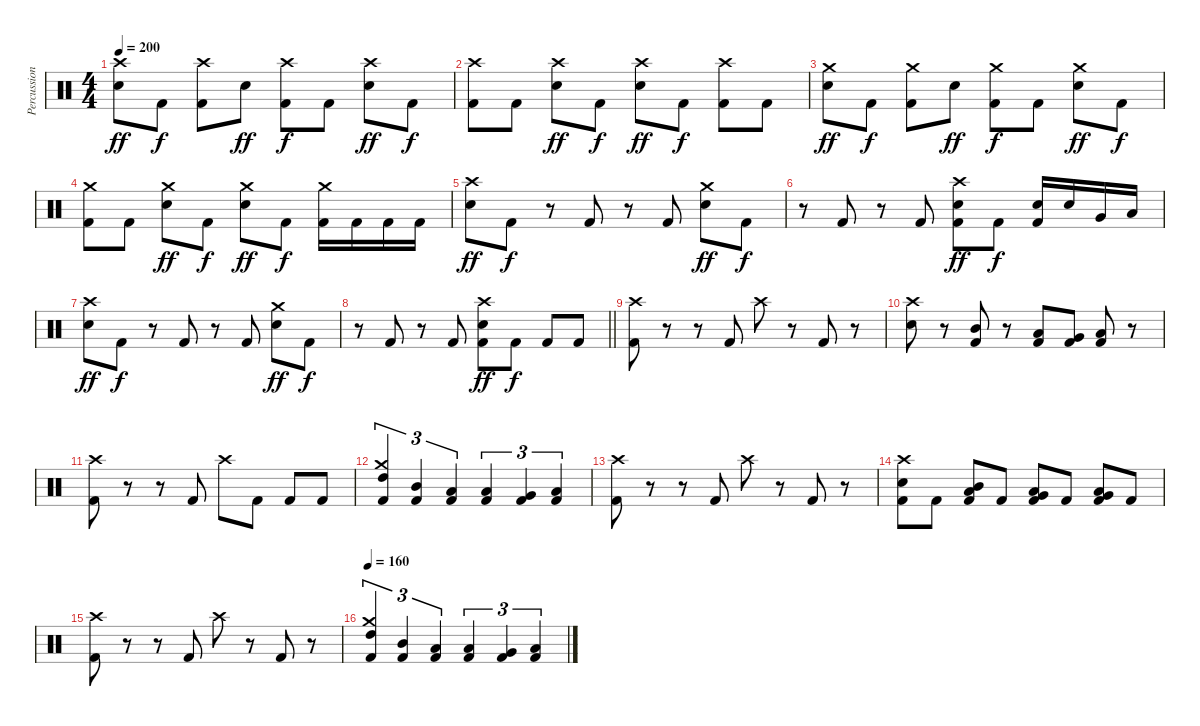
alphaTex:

\track ("Percussion" "Percussion") {instrument percussion}
\staff {score}
\articulation defaults
\ts (4 4)
\tempo 200
\clef neutral
\ks c
("Crash high (hit)" "Electric Snare (hit)").8{dy ff} "Kick (hit) 2".8{dy f} ("Crash high (hit)" "Kick (hit) 2").8 "Electric Snare (hit)".8{dy ff} ("Crash high (hit)" "Kick (hit) 2").8{dy f} "Kick (hit) 2".8 ("Crash high (hit)" "Electric Snare (hit)").8{dy ff} "Kick (hit) 2".8{dy f} |
("Crash high (hit)" "Kick (hit) 2").8 "Kick (hit) 2".8 ("Crash high (hit)" "Electric Snare (hit)").8{dy ff} "Kick (hit) 2".8{dy f} ("Crash high (hit)" "Electric Snare (hit)").8{dy ff} "Kick (hit) 2".8{dy f} ("Crash high (hit)" "Kick (hit) 2").8 "Kick (hit) 2".8 |
("Crash medium (hit)" "Electric Snare (hit)").8{dy ff} "Kick (hit) 2".8{dy f} ("Crash medium (hit)" "Kick (hit) 2").8 "Electric Snare (hit)".8{dy ff} ("Crash medium (hit)" "Kick (hit) 2").8{dy f} "Kick (hit) 2".8 ("Crash medium (hit)" "Electric Snare (hit)").8{dy ff} "Kick (hit) 2".8{dy f} |
("Crash medium (hit)" "Kick (hit) 2").8 "Kick (hit) 2".8 ("Crash medium (hit)" "Electric Snare (hit)").8{dy ff} "Kick (hit) 2".8{dy f} ("Crash medium (hit)" "Electric Snare (hit)").8{dy ff} "Kick (hit) 2".8{dy f} ("Crash medium (hit)" "Kick (hit) 2").16 "Kick (hit) 2".16 "Kick (hit) 2".16 "Kick (hit) 2".16 |
("Crash high (hit)" "Electric Snare (hit)").8{dy ff} "Kick (hit) 2".8{dy f} r.8 "Kick (hit) 2".8 r.8 "Kick (hit) 2".8 ("Crash medium (hit)" "Electric Snare (hit)").8{dy ff} "Kick (hit) 2".8{dy f} |
r.8 "Kick (hit) 2".8 r.8 "Kick (hit) 2".8 ("Crash high (hit)" "Electric Snare (hit)" "Kick (hit) 2").8{dy ff} "Kick (hit) 2".8{dy f} ("Electric Snare (hit)" "Kick (hit) 2").16 "Electric Snare (hit)".16 "Very Low Tom (hit)".16 "Low Tom (hit)".16 |
("Crash high (hit)" "Electric Snare (hit)").8{dy ff} "Kick (hit) 2".8{dy f} r.8 "Kick (hit) 2".8 r.8 "Kick (hit) 2".8 ("Crash medium (hit)" "Electric Snare (hit)").8{dy ff} "Kick (hit) 2".8{dy f} |
\barLineRight lightlight
r.8 "Kick (hit) 2".8 r.8 "Kick (hit) 2".8 ("Crash high (hit)" "Electric Snare (hit)" "Kick (hit) 2").8{dy ff} "Kick (hit) 2".8{dy f} "Kick (hit) 2".8 "Kick (hit) 2".8 |
\section ("" "")
("Crash high (hit)" "Kick (hit) 2").8 r.8 r.8 "Kick (hit) 2".8 "Crash high (hit)".8 r.8 "Kick (hit) 2".8 r.8 |
("Crash high (hit)" "Electric Snare (hit)").8 r.8 ("Mid Tom (hit)" "Kick (hit) 2").8 r.8 ("Low Tom (hit)" "Kick (hit) 2").8 ("Very Low Tom (hit)" "Kick (hit) 2").8 ("Low Floor Tom (hit)" "Kick (hit) 2").8 r.8 |
("Crash high (hit)" "Kick (hit) 2").8 r.8 r.8 "Kick (hit) 2".8 "Crash high (hit)".8 "Kick (hit) 2".8 "Kick (hit) 2".8 "Kick (hit) 2".8 |
("Crash medium (hit)" "High Tom (hit)" "Kick (hit) 2").4{tu (3 2)} ("Mid Tom (hit)" "Kick (hit) 2").4{tu (3 2)} ("Low Tom (hit)" "Kick (hit) 2").4{tu (3 2)} ("Low Tom (hit)" "Kick (hit) 2").4{tu (3 2)} ("Very Low Tom (hit)" "Kick (hit) 2").4{tu (3 2)} ("Low Floor Tom (hit)" "Kick (hit) 2").4{tu (3 2)} |
("Crash high (hit)" "Kick (hit) 2").8 r.8 r.8 "Kick (hit) 2".8 "Crash high (hit)".8 r.8 "Kick (hit) 2".8 r.8 |
("Crash high (hit)" "Electric Snare (hit)" "Kick (hit) 2").8 "Kick (hit) 2".8 ("Mid Tom (hit)" "Low Tom (hit)" "Kick (hit) 2").8 "Kick (hit) 2".8 ("Low Tom (hit)" "Very Low Tom (hit)" "Kick (hit) 2").8 "Kick (hit) 2".8 ("Very Low Tom (hit)" "Low Floor Tom (hit)" "Kick (hit) 2").8 "Kick (hit) 2".8 |
("Crash high (hit)" "Kick (hit) 2").8 r.8 r.8 "Kick (hit) 2".8 "Crash high (hit)".8 r.8 "Kick (hit) 2".8 r.8 |
\tempo 160
("Crash medium (hit)" "High Tom (hit)" "Kick (hit) 2").4{tu (3 2)} ("Mid Tom (hit)" "Kick (hit) 2").4{tu (3 2)} ("Low Tom (hit)" "Kick (hit) 2").4{tu (3 2)} ("Low Tom (hit)" "Kick (hit) 2").4{tu (3 2)} ("Very Low Tom (hit)" "Kick (hit) 2").4{tu (3 2)} ("Low Floor Tom (hit)" "Kick (hit) 2").4{tu (3 2)}
